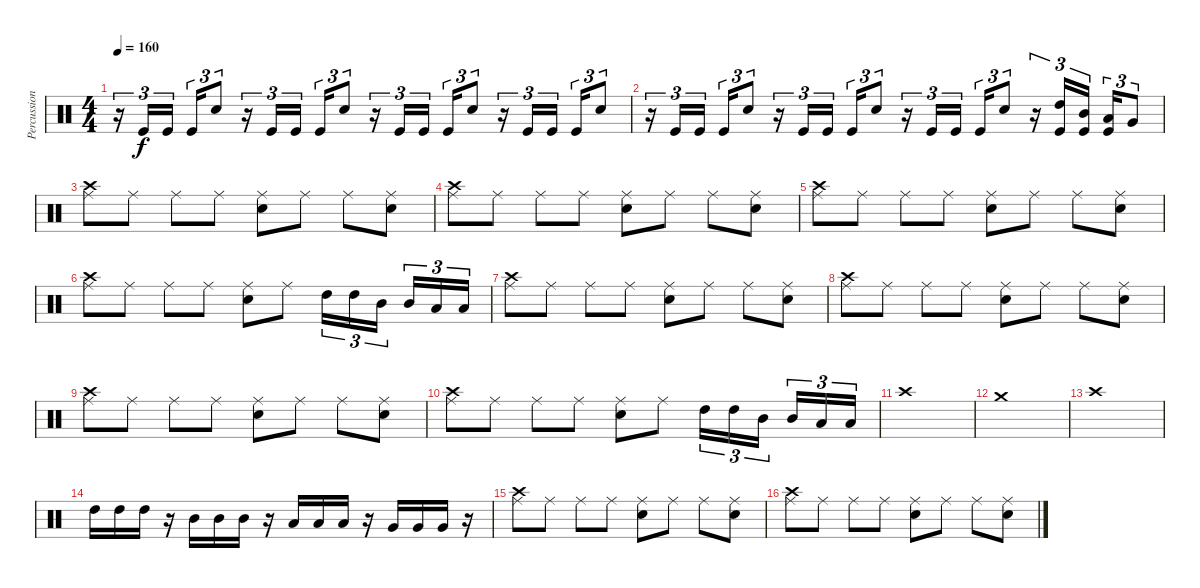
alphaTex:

\track ("Percussion" "Percussion") {instrument percussion}
\staff {score}
\articulation defaults
\ts (4 4)
\tempo 160
\clef neutral
\ks c
r.16{tu (3 2) dy f} "Kick (hit)".16{tu (3 2)} "Kick (hit)".16{tu (3 2)} "Kick (hit)".16{tu (3 2)} "Snare (hit) 2".8{tu (3 2)} r.16{tu (3 2)} "Kick (hit)".16{tu (3 2)} "Kick (hit)".16{tu (3 2)} "Kick (hit)".16{tu (3 2)} "Snare (hit) 2".8{tu (3 2)} r.16{tu (3 2)} "Kick (hit)".16{tu (3 2)} "Kick (hit)".16{tu (3 2)} "Kick (hit)".16{tu (3 2)} "Snare (hit) 2".8{tu (3 2)} r.16{tu (3 2)} "Kick (hit)".16{tu (3 2)} "Kick (hit)".16{tu (3 2)} "Kick (hit)".16{tu (3 2)} "Snare (hit) 2".8{tu (3 2)} |
r.16{tu (3 2)} "Kick (hit)".16{tu (3 2)} "Kick (hit)".16{tu (3 2)} "Kick (hit)".16{tu (3 2)} "Snare (hit) 2".8{tu (3 2)} r.16{tu (3 2)} "Kick (hit)".16{tu (3 2)} "Kick (hit)".16{tu (3 2)} "Kick (hit)".16{tu (3 2)} "Snare (hit) 2".8{tu (3 2)} r.16{tu (3 2)} "Kick (hit)".16{tu (3 2)} "Kick (hit)".16{tu (3 2)} "Kick (hit)".16{tu (3 2)} "Snare (hit) 2".8{tu (3 2)} r.16{tu (3 2)} ("Kick (hit)" "High Tom (hit)").16{tu (3 2)} ("Kick (hit)" "Mid Tom (hit)").16{tu (3 2)} ("Kick (hit)" "Low Tom (hit)").16{tu (3 2)} "Very Low Tom (hit)".8{tu (3 2)} |
("Crash high (hit)" "Ride (middle)").8 "Ride (middle)".8 "Ride (middle)".8 "Ride (middle)".8 ("Snare (hit) 2" "Ride (middle)").8 "Ride (middle)".8 "Ride (middle)".8 ("Snare (hit) 2" "Ride (middle)").8 |
("Crash high (hit)" "Ride (middle)").8 "Ride (middle)".8 "Ride (middle)".8 "Ride (middle)".8 ("Snare (hit) 2" "Ride (middle)").8 "Ride (middle)".8 "Ride (middle)".8 ("Snare (hit) 2" "Ride (middle)").8 |
("Crash high (hit)" "Ride (middle)").8 "Ride (middle)".8 "Ride (middle)".8 "Ride (middle)".8 ("Snare (hit) 2" "Ride (middle)").8 "Ride (middle)".8 "Ride (middle)".8 ("Snare (hit) 2" "Ride (middle)").8 |
("Crash high (hit)" "Ride (middle)").8 "Ride (middle)".8 "Ride (middle)".8 "Ride (middle)".8 ("Snare (hit) 2" "Ride (middle)").8 "Ride (middle)".8 "High Tom (hit)".16{tu (3 2)} "High Tom (hit)".16{tu (3 2)} "Mid Tom (hit)".16{tu (3 2)} "Mid Tom (hit)".16{tu (3 2)} "Low Tom (hit)".16{tu (3 2)} "Low Tom (hit)".16{tu (3 2)} |
("Crash high (hit)" "Ride (middle)").8 "Ride (middle)".8 "Ride (middle)".8 "Ride (middle)".8 ("Snare (hit) 2" "Ride (middle)").8 "Ride (middle)".8 "Ride (middle)".8 ("Snare (hit) 2" "Ride (middle)").8 |
("Crash high (hit)" "Ride (middle)").8 "Ride (middle)".8 "Ride (middle)".8 "Ride (middle)".8 ("Snare (hit) 2" "Ride (middle)").8 "Ride (middle)".8 "Ride (middle)".8 ("Snare (hit) 2" "Ride (middle)").8 |
("Crash high (hit)" "Ride (middle)").8 "Ride (middle)".8 "Ride (middle)".8 "Ride (middle)".8 ("Snare (hit) 2" "Ride (middle)").8 "Ride (middle)".8 "Ride (middle)".8 ("Snare (hit) 2" "Ride (middle)").8 |
("Crash high (hit)" "Ride (middle)").8 "Ride (middle)".8 "Ride (middle)".8 "Ride (middle)".8 ("Snare (hit) 2" "Ride (middle)").8 "Ride (middle)".8 "High Tom (hit)".16{tu (3 2)} "High Tom (hit)".16{tu (3 2)} "Mid Tom (hit)".16{tu (3 2)} "Mid Tom (hit)".16{tu (3 2)} "Low Tom (hit)".16{tu (3 2)} "Low Tom (hit)".16{tu (3 2)} |
"Crash high (hit)".1 |
"Crash medium (hit)".1 |
"Crash high (hit)".1 |
"High Tom (hit)".16 "High Tom (hit)".16 "High Tom (hit)".16 r.16 "Mid Tom (hit)".16 "Mid Tom (hit)".16 "Mid Tom (hit)".16 r.16 "Low Tom (hit)".16 "Low Tom (hit)".16 "Low Tom (hit)".16 r.16 "Very Low Tom (hit)".16 "Very Low Tom (hit)".16 "Very Low Tom (hit)".16 r.16 |
("Crash high (hit)" "Ride (middle)").8 "Ride (middle)".8 "Ride (middle)".8 "Ride (middle)".8 ("Snare (hit) 2" "Ride (middle)").8 "Ride (middle)".8 "Ride (middle)".8 ("Snare (hit) 2" "Ride (middle)").8 |
("Crash high (hit)" "Ride (middle)").8 "Ride (middle)".8 "Ride (middle)".8 "Ride (middle)".8 ("Snare (hit) 2" "Ride (middle)").8 "Ride (middle)".8 "Ride (middle)".8 ("Snare (hit) 2" "Ride (middle)").8
